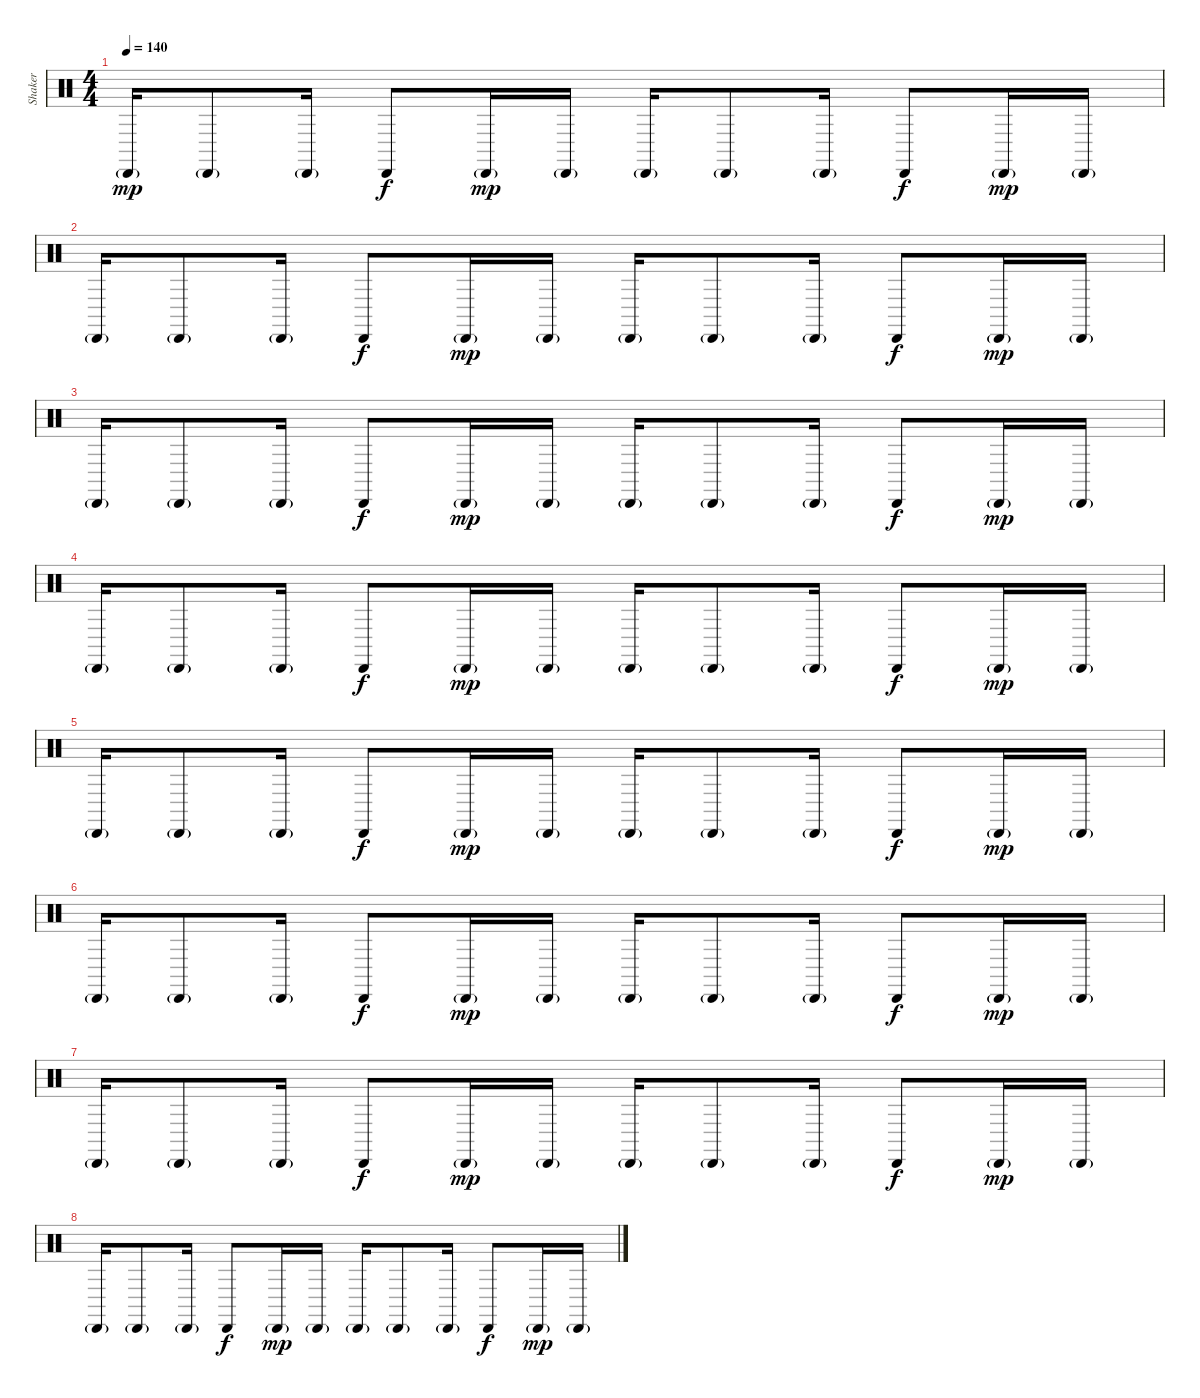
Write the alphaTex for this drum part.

\track ("Shaker" "Shaker") {instrument percussion}
\staff {score}
\articulation defaults
\ts (4 4)
\tempo 140
\clef neutral
\ks c "Cabasa (hit)"{g}.16{dy mp} "Cabasa (hit)"{g}.8 "Cabasa (hit)"{g}.16 "Cabasa (hit)".8{dy f} "Cabasa (hit)"{g}.16{dy mp} "Cabasa (hit)"{g}.16 "Cabasa (hit)"{g}.16 "Cabasa (hit)"{g}.8 "Cabasa (hit)"{g}.16 "Cabasa (hit)".8{dy f} "Cabasa (hit)"{g}.16{dy mp} "Cabasa (hit)"{g}.16
|
"Cabasa (hit)"{g}.16 "Cabasa (hit)"{g}.8 "Cabasa (hit)"{g}.16 "Cabasa (hit)".8{dy f} "Cabasa (hit)"{g}.16{dy mp} "Cabasa (hit)"{g}.16 "Cabasa (hit)"{g}.16 "Cabasa (hit)"{g}.8 "Cabasa (hit)"{g}.16 "Cabasa (hit)".8{dy f} "Cabasa (hit)"{g}.16{dy mp} "Cabasa (hit)"{g}.16 |
"Cabasa (hit)"{g}.16 "Cabasa (hit)"{g}.8 "Cabasa (hit)"{g}.16 "Cabasa (hit)".8{dy f} "Cabasa (hit)"{g}.16{dy mp} "Cabasa (hit)"{g}.16 "Cabasa (hit)"{g}.16 "Cabasa (hit)"{g}.8 "Cabasa (hit)"{g}.16 "Cabasa (hit)".8{dy f} "Cabasa (hit)"{g}.16{dy mp} "Cabasa (hit)"{g}.16 |
"Cabasa (hit)"{g}.16 "Cabasa (hit)"{g}.8 "Cabasa (hit)"{g}.16 "Cabasa (hit)".8{dy f} "Cabasa (hit)"{g}.16{dy mp} "Cabasa (hit)"{g}.16 "Cabasa (hit)"{g}.16 "Cabasa (hit)"{g}.8 "Cabasa (hit)"{g}.16 "Cabasa (hit)".8{dy f} "Cabasa (hit)"{g}.16{dy mp} "Cabasa (hit)"{g}.16 |
"Cabasa (hit)"{g}.16 "Cabasa (hit)"{g}.8 "Cabasa (hit)"{g}.16 "Cabasa (hit)".8{dy f} "Cabasa (hit)"{g}.16{dy mp} "Cabasa (hit)"{g}.16 "Cabasa (hit)"{g}.16 "Cabasa (hit)"{g}.8 "Cabasa (hit)"{g}.16 "Cabasa (hit)".8{dy f} "Cabasa (hit)"{g}.16{dy mp} "Cabasa (hit)"{g}.16 |
"Cabasa (hit)"{g}.16 "Cabasa (hit)"{g}.8 "Cabasa (hit)"{g}.16 "Cabasa (hit)".8{dy f} "Cabasa (hit)"{g}.16{dy mp} "Cabasa (hit)"{g}.16 "Cabasa (hit)"{g}.16 "Cabasa (hit)"{g}.8 "Cabasa (hit)"{g}.16 "Cabasa (hit)".8{dy f} "Cabasa (hit)"{g}.16{dy mp} "Cabasa (hit)"{g}.16 |
"Cabasa (hit)"{g}.16 "Cabasa (hit)"{g}.8 "Cabasa (hit)"{g}.16 "Cabasa (hit)".8{dy f} "Cabasa (hit)"{g}.16{dy mp} "Cabasa (hit)"{g}.16 "Cabasa (hit)"{g}.16 "Cabasa (hit)"{g}.8 "Cabasa (hit)"{g}.16 "Cabasa (hit)".8{dy f} "Cabasa (hit)"{g}.16{dy mp} "Cabasa (hit)"{g}.16 |
"Cabasa (hit)"{g}.16 "Cabasa (hit)"{g}.8 "Cabasa (hit)"{g}.16 "Cabasa (hit)".8{dy f} "Cabasa (hit)"{g}.16{dy mp} "Cabasa (hit)"{g}.16 "Cabasa (hit)"{g}.16 "Cabasa (hit)"{g}.8 "Cabasa (hit)"{g}.16 "Cabasa (hit)".8{dy f} "Cabasa (hit)"{g}.16{dy mp} "Cabasa (hit)"{g}.16
